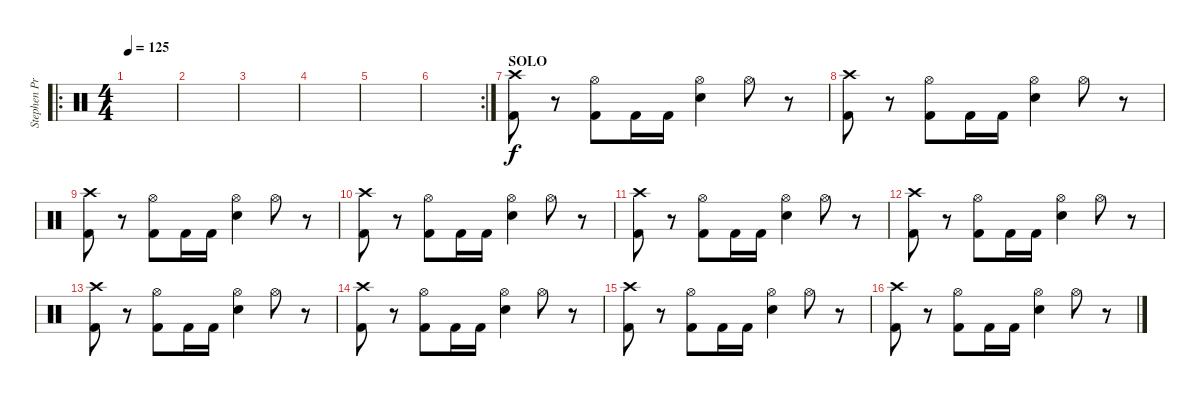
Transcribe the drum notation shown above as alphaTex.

\track ("Stephen Priestly" "Stephen Pr") {instrument percussion}
\staff {score}
\articulation defaults
\ro
\ts (4 4)
\tempo 125
\clef neutral
\ks c
|
|
|
|
|
\rc 2
|
\section ("" "SOLO")
("Crash high (hit)" "Kick (hit) 2").8 r.8 ("Hi-Hat (open)" "Kick (hit) 2").8 "Kick (hit) 2".16 "Kick (hit) 2".16 ("Hi-Hat (open)" "Snare (hit) 2").4 "Hi-Hat (open)".8 r.8 |
("Crash high (hit)" "Kick (hit) 2").8 r.8 ("Hi-Hat (open)" "Kick (hit) 2").8 "Kick (hit) 2".16 "Kick (hit) 2".16 ("Hi-Hat (open)" "Snare (hit) 2").4 "Hi-Hat (open)".8 r.8 |
("Crash high (hit)" "Kick (hit) 2").8 r.8 ("Hi-Hat (open)" "Kick (hit) 2").8 "Kick (hit) 2".16 "Kick (hit) 2".16 ("Hi-Hat (open)" "Snare (hit) 2").4 "Hi-Hat (open)".8 r.8 |
("Crash high (hit)" "Kick (hit) 2").8 r.8 ("Hi-Hat (open)" "Kick (hit) 2").8 "Kick (hit) 2".16 "Kick (hit) 2".16 ("Hi-Hat (open)" "Snare (hit) 2").4 "Hi-Hat (open)".8 r.8 |
("Crash high (hit)" "Kick (hit) 2").8 r.8 ("Hi-Hat (open)" "Kick (hit) 2").8 "Kick (hit) 2".16 "Kick (hit) 2".16 ("Hi-Hat (open)" "Snare (hit) 2").4 "Hi-Hat (open)".8 r.8 |
("Crash high (hit)" "Kick (hit) 2").8 r.8 ("Hi-Hat (open)" "Kick (hit) 2").8 "Kick (hit) 2".16 "Kick (hit) 2".16 ("Hi-Hat (open)" "Snare (hit) 2").4 "Hi-Hat (open)".8 r.8 |
("Crash high (hit)" "Kick (hit) 2").8 r.8 ("Hi-Hat (open)" "Kick (hit) 2").8 "Kick (hit) 2".16 "Kick (hit) 2".16 ("Hi-Hat (open)" "Snare (hit) 2").4 "Hi-Hat (open)".8 r.8 |
("Crash high (hit)" "Kick (hit) 2").8 r.8 ("Hi-Hat (open)" "Kick (hit) 2").8 "Kick (hit) 2".16 "Kick (hit) 2".16 ("Hi-Hat (open)" "Snare (hit) 2").4 "Hi-Hat (open)".8 r.8 |
("Crash high (hit)" "Kick (hit) 2").8 r.8 ("Hi-Hat (open)" "Kick (hit) 2").8 "Kick (hit) 2".16 "Kick (hit) 2".16 ("Hi-Hat (open)" "Snare (hit) 2").4 "Hi-Hat (open)".8 r.8 |
("Crash high (hit)" "Kick (hit) 2").8 r.8 ("Hi-Hat (open)" "Kick (hit) 2").8 "Kick (hit) 2".16 "Kick (hit) 2".16 ("Hi-Hat (open)" "Snare (hit) 2").4 "Hi-Hat (open)".8 r.8
